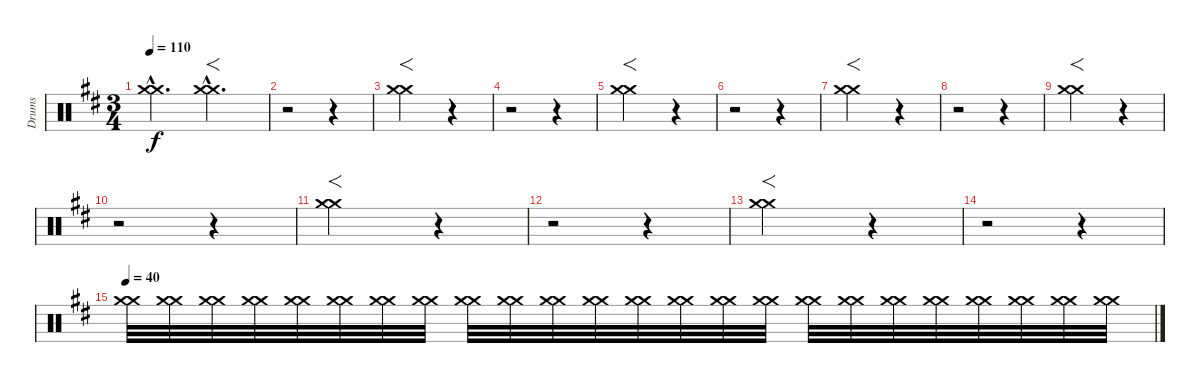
\track ("Drums" "Drums") {instrument percussion}
\staff {score}
\articulation defaults
\ts (3 4)
\tempo 110
\clef neutral
\ks d
("Crash medium (hit)"{hac} "Crash medium (hit)"{hac}).4{d dy f} ("Crash medium (hit)"{hac} "Crash medium (hit)"{hac}).4{f d} |
r.2 r.4 |
("Crash medium (hit)" "Crash medium (hit)").2{f} r.4 |
r.2 r.4 |
("Crash medium (hit)" "Crash medium (hit)").2{f} r.4 |
r.2 r.4 |
("Crash medium (hit)" "Crash medium (hit)").2{f} r.4 |
r.2 r.4 |
("Crash medium (hit)" "Crash medium (hit)").2{f} r.4 |
r.2 r.4 |
("Crash medium (hit)" "Crash medium (hit)").2{f} r.4 |
r.2 r.4 |
("Crash medium (hit)" "Crash medium (hit)").2{f} r.4 |
r.2 r.4 |
\tempo 40
("Crash medium (hit)" "Crash medium (hit)").32{volume 1} ("Crash medium (hit)" "Crash medium (hit)").32 ("Crash medium (hit)" "Crash medium (hit)").32 ("Crash medium (hit)" "Crash medium (hit)").32 ("Crash medium (hit)" "Crash medium (hit)").32 ("Crash medium (hit)" "Crash medium (hit)").32 ("Crash medium (hit)" "Crash medium (hit)").32 ("Crash medium (hit)" "Crash medium (hit)").32 ("Crash medium (hit)" "Crash medium (hit)").32 ("Crash medium (hit)" "Crash medium (hit)").32 ("Crash medium (hit)" "Crash medium (hit)").32 ("Crash medium (hit)" "Crash medium (hit)").32 ("Crash medium (hit)" "Crash medium (hit)").32 ("Crash medium (hit)" "Crash medium (hit)").32 ("Crash medium (hit)" "Crash medium (hit)").32 ("Crash medium (hit)" "Crash medium (hit)").32 ("Crash medium (hit)" "Crash medium (hit)").32 ("Crash medium (hit)" "Crash medium (hit)").32 ("Crash medium (hit)" "Crash medium (hit)").32 ("Crash medium (hit)" "Crash medium (hit)").32 ("Crash medium (hit)" "Crash medium (hit)").32 ("Crash medium (hit)" "Crash medium (hit)").32 ("Crash medium (hit)" "Crash medium (hit)").32 ("Crash medium (hit)" "Crash medium (hit)").32
